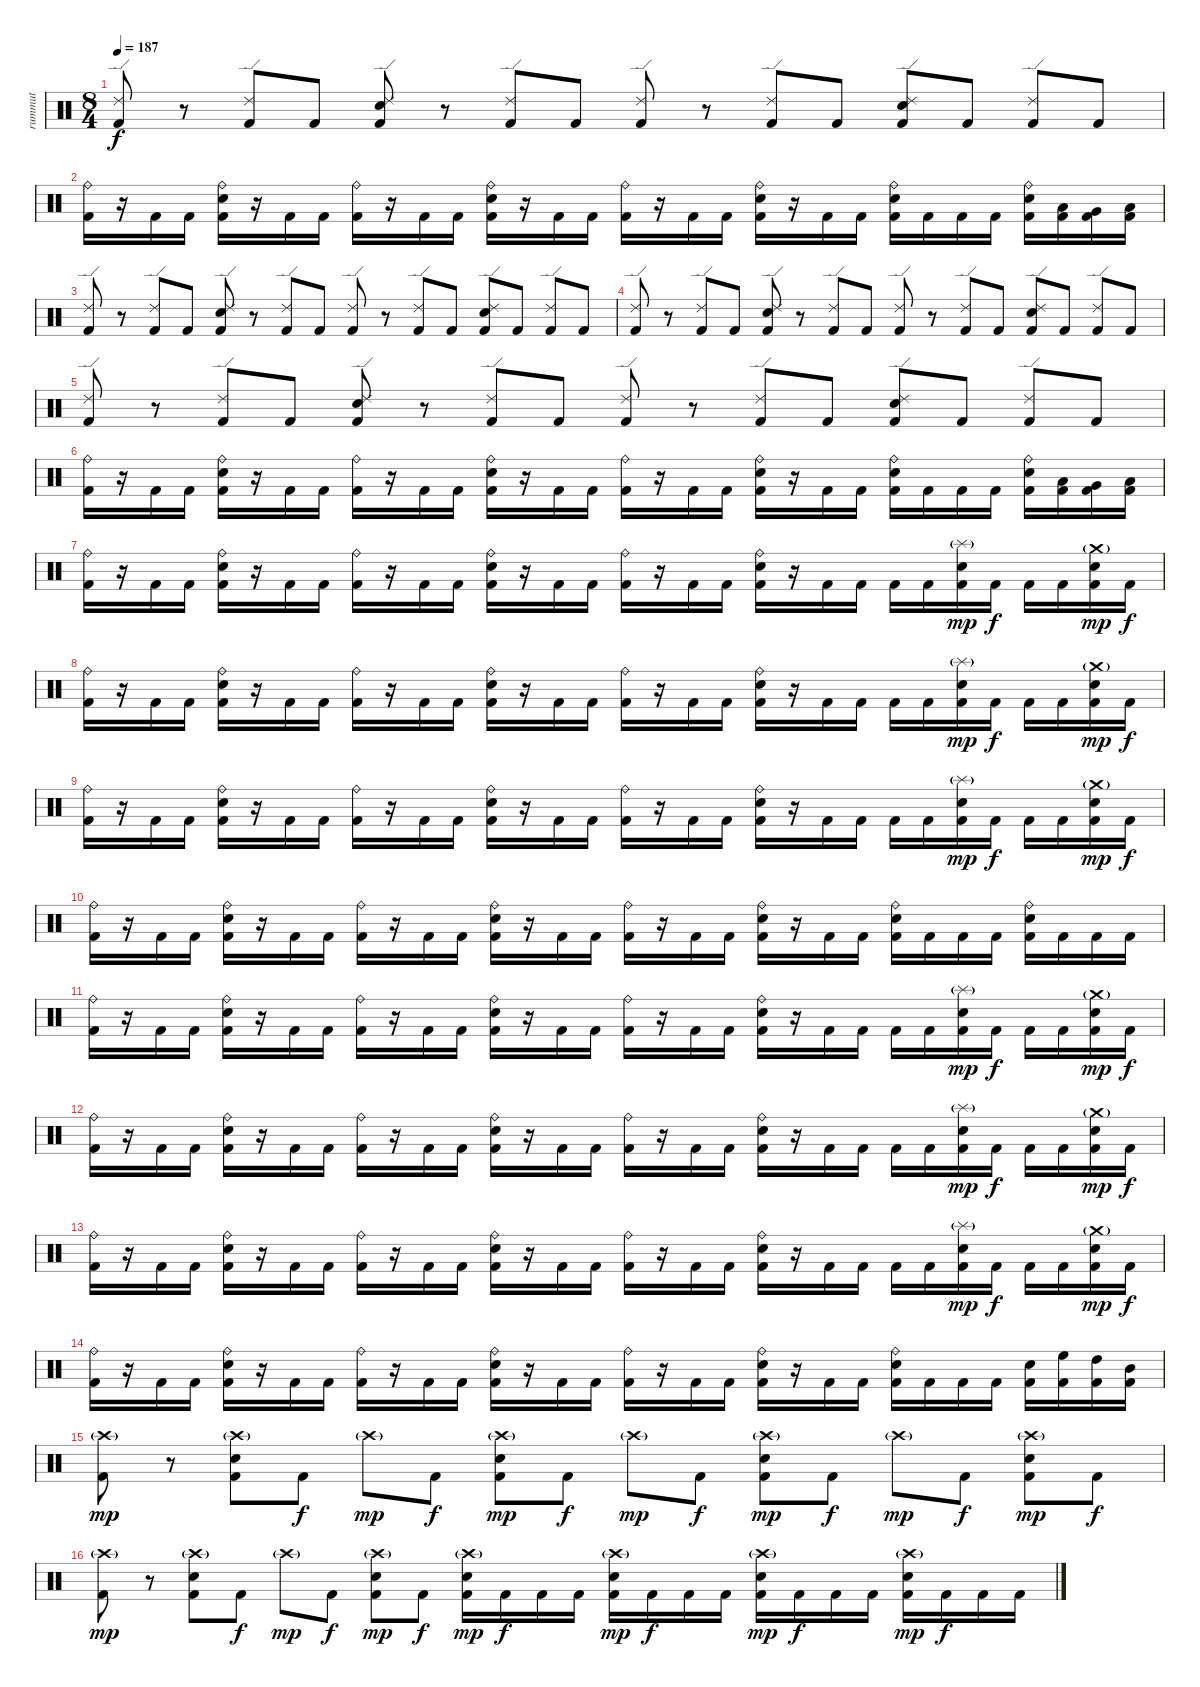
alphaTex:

\track ("rummut" "rummut") {instrument percussion}
\staff {score}
\articulation defaults
\ts (8 4)
\tempo 187
\clef neutral
\ks c
("Kick (hit) 2" "Ride (edge) 2").8{dy f} r.8 ("Kick (hit) 2" "Ride (edge) 2").8 "Kick (hit) 2".8 ("Kick (hit) 2" "Ride (edge) 2" "Snare (hit) 2").8 r.8 ("Kick (hit) 2" "Ride (edge) 2").8 "Kick (hit) 2".8 ("Kick (hit) 2" "Ride (edge) 2").8 r.8 ("Kick (hit) 2" "Ride (edge) 2").8 "Kick (hit) 2".8 ("Kick (hit) 2" "Ride (edge) 2" "Snare (hit) 2").8 "Kick (hit) 2".8 ("Kick (hit) 2" "Ride (edge) 2").8 "Kick (hit) 2".8 |
("Kick (hit) 2" "Ride (bell)").16 r.16 "Kick (hit) 2".16 "Kick (hit) 2".16 ("Kick (hit) 2" "Ride (bell)" "Snare (hit) 2").16 r.16 "Kick (hit) 2".16 "Kick (hit) 2".16 ("Kick (hit) 2" "Ride (bell)").16 r.16 "Kick (hit) 2".16 "Kick (hit) 2".16 ("Kick (hit) 2" "Ride (bell)" "Snare (hit) 2").16 r.16 "Kick (hit) 2".16 "Kick (hit) 2".16 ("Kick (hit) 2" "Ride (bell)").16 r.16 "Kick (hit) 2".16 "Kick (hit) 2".16 ("Kick (hit) 2" "Ride (bell)" "Snare (hit) 2").16 r.16 "Kick (hit) 2".16 "Kick (hit) 2".16 ("Kick (hit) 2" "Ride (bell)" "Snare (hit) 2").16 "Kick (hit) 2".16 "Kick (hit) 2".16 "Kick (hit) 2".16 ("Kick (hit) 2" "Ride (bell)" "Snare (hit) 2").16 ("Kick (hit) 2" "Low Tom (hit)").16 ("Kick (hit) 2" "Very Low Tom (hit)").16 ("Kick (hit) 2" "Low Floor Tom (hit)").16 |
("Kick (hit) 2" "Ride (edge) 2").8 r.8 ("Kick (hit) 2" "Ride (edge) 2").8 "Kick (hit) 2".8 ("Kick (hit) 2" "Ride (edge) 2" "Snare (hit) 2").8 r.8 ("Kick (hit) 2" "Ride (edge) 2").8 "Kick (hit) 2".8 ("Kick (hit) 2" "Ride (edge) 2").8 r.8 ("Kick (hit) 2" "Ride (edge) 2").8 "Kick (hit) 2".8 ("Kick (hit) 2" "Ride (edge) 2" "Snare (hit) 2").8 "Kick (hit) 2".8 ("Kick (hit) 2" "Ride (edge) 2").8 "Kick (hit) 2".8 |
("Kick (hit) 2" "Ride (edge) 2").8 r.8 ("Kick (hit) 2" "Ride (edge) 2").8 "Kick (hit) 2".8 ("Kick (hit) 2" "Ride (edge) 2" "Snare (hit) 2").8 r.8 ("Kick (hit) 2" "Ride (edge) 2").8 "Kick (hit) 2".8 ("Kick (hit) 2" "Ride (edge) 2").8 r.8 ("Kick (hit) 2" "Ride (edge) 2").8 "Kick (hit) 2".8 ("Kick (hit) 2" "Ride (edge) 2" "Snare (hit) 2").8 "Kick (hit) 2".8 ("Kick (hit) 2" "Ride (edge) 2").8 "Kick (hit) 2".8 |
("Kick (hit) 2" "Ride (edge) 2").8 r.8 ("Kick (hit) 2" "Ride (edge) 2").8 "Kick (hit) 2".8 ("Kick (hit) 2" "Ride (edge) 2" "Snare (hit) 2").8 r.8 ("Kick (hit) 2" "Ride (edge) 2").8 "Kick (hit) 2".8 ("Kick (hit) 2" "Ride (edge) 2").8 r.8 ("Kick (hit) 2" "Ride (edge) 2").8 "Kick (hit) 2".8 ("Kick (hit) 2" "Ride (edge) 2" "Snare (hit) 2").8 "Kick (hit) 2".8 ("Kick (hit) 2" "Ride (edge) 2").8 "Kick (hit) 2".8 |
("Kick (hit) 2" "Ride (bell)").16 r.16 "Kick (hit) 2".16 "Kick (hit) 2".16 ("Kick (hit) 2" "Ride (bell)" "Snare (hit) 2").16 r.16 "Kick (hit) 2".16 "Kick (hit) 2".16 ("Kick (hit) 2" "Ride (bell)").16 r.16 "Kick (hit) 2".16 "Kick (hit) 2".16 ("Kick (hit) 2" "Ride (bell)" "Snare (hit) 2").16 r.16 "Kick (hit) 2".16 "Kick (hit) 2".16 ("Kick (hit) 2" "Ride (bell)").16 r.16 "Kick (hit) 2".16 "Kick (hit) 2".16 ("Kick (hit) 2" "Ride (bell)" "Snare (hit) 2").16 r.16 "Kick (hit) 2".16 "Kick (hit) 2".16 ("Kick (hit) 2" "Ride (bell)" "Snare (hit) 2").16 "Kick (hit) 2".16 "Kick (hit) 2".16 "Kick (hit) 2".16 ("Kick (hit) 2" "Ride (bell)" "Snare (hit) 2").16 ("Kick (hit) 2" "Low Tom (hit)").16 ("Kick (hit) 2" "Very Low Tom (hit)").16 ("Kick (hit) 2" "Low Floor Tom (hit)").16 |
("Kick (hit) 2" "Ride (bell)").16 r.16 "Kick (hit) 2".16 "Kick (hit) 2".16 ("Kick (hit) 2" "Ride (bell)" "Snare (hit) 2").16 r.16 "Kick (hit) 2".16 "Kick (hit) 2".16 ("Kick (hit) 2" "Ride (bell)").16 r.16 "Kick (hit) 2".16 "Kick (hit) 2".16 ("Kick (hit) 2" "Ride (bell)" "Snare (hit) 2").16 r.16 "Kick (hit) 2".16 "Kick (hit) 2".16 ("Kick (hit) 2" "Ride (bell)").16 r.16 "Kick (hit) 2".16 "Kick (hit) 2".16 ("Kick (hit) 2" "Ride (bell)" "Snare (hit) 2").16 r.16 "Kick (hit) 2".16 "Kick (hit) 2".16 "Kick (hit) 2".16 "Kick (hit) 2".16 ("Kick (hit) 2" "Snare (hit) 2" "Splash (hit)"{g}).16{dy mp} "Kick (hit) 2".16{dy f} "Kick (hit) 2".16 "Kick (hit) 2".16 ("Kick (hit) 2" "Snare (hit) 2" "Crash medium (hit)"{g}).16{dy mp} "Kick (hit) 2".16{dy f} |
("Kick (hit) 2" "Ride (bell)").16 r.16 "Kick (hit) 2".16 "Kick (hit) 2".16 ("Kick (hit) 2" "Ride (bell)" "Snare (hit) 2").16 r.16 "Kick (hit) 2".16 "Kick (hit) 2".16 ("Kick (hit) 2" "Ride (bell)").16 r.16 "Kick (hit) 2".16 "Kick (hit) 2".16 ("Kick (hit) 2" "Ride (bell)" "Snare (hit) 2").16 r.16 "Kick (hit) 2".16 "Kick (hit) 2".16 ("Kick (hit) 2" "Ride (bell)").16 r.16 "Kick (hit) 2".16 "Kick (hit) 2".16 ("Kick (hit) 2" "Ride (bell)" "Snare (hit) 2").16 r.16 "Kick (hit) 2".16 "Kick (hit) 2".16 "Kick (hit) 2".16 "Kick (hit) 2".16 ("Kick (hit) 2" "Snare (hit) 2" "Splash (hit)"{g}).16{dy mp} "Kick (hit) 2".16{dy f} "Kick (hit) 2".16 "Kick (hit) 2".16 ("Kick (hit) 2" "Snare (hit) 2" "Crash medium (hit)"{g}).16{dy mp} "Kick (hit) 2".16{dy f} |
("Kick (hit) 2" "Ride (bell)").16 r.16 "Kick (hit) 2".16 "Kick (hit) 2".16 ("Kick (hit) 2" "Ride (bell)" "Snare (hit) 2").16 r.16 "Kick (hit) 2".16 "Kick (hit) 2".16 ("Kick (hit) 2" "Ride (bell)").16 r.16 "Kick (hit) 2".16 "Kick (hit) 2".16 ("Kick (hit) 2" "Ride (bell)" "Snare (hit) 2").16 r.16 "Kick (hit) 2".16 "Kick (hit) 2".16 ("Kick (hit) 2" "Ride (bell)").16 r.16 "Kick (hit) 2".16 "Kick (hit) 2".16 ("Kick (hit) 2" "Ride (bell)" "Snare (hit) 2").16 r.16 "Kick (hit) 2".16 "Kick (hit) 2".16 "Kick (hit) 2".16 "Kick (hit) 2".16 ("Kick (hit) 2" "Snare (hit) 2" "Splash (hit)"{g}).16{dy mp} "Kick (hit) 2".16{dy f} "Kick (hit) 2".16 "Kick (hit) 2".16 ("Kick (hit) 2" "Snare (hit) 2" "Crash medium (hit)"{g}).16{dy mp} "Kick (hit) 2".16{dy f} |
("Kick (hit) 2" "Ride (bell)").16 r.16 "Kick (hit) 2".16 "Kick (hit) 2".16 ("Kick (hit) 2" "Ride (bell)" "Snare (hit) 2").16 r.16 "Kick (hit) 2".16 "Kick (hit) 2".16 ("Kick (hit) 2" "Ride (bell)").16 r.16 "Kick (hit) 2".16 "Kick (hit) 2".16 ("Kick (hit) 2" "Ride (bell)" "Snare (hit) 2").16 r.16 "Kick (hit) 2".16 "Kick (hit) 2".16 ("Kick (hit) 2" "Ride (bell)").16 r.16 "Kick (hit) 2".16 "Kick (hit) 2".16 ("Kick (hit) 2" "Ride (bell)" "Snare (hit) 2").16 r.16 "Kick (hit) 2".16 "Kick (hit) 2".16 ("Kick (hit) 2" "Ride (bell)" "Snare (hit) 2").16 "Kick (hit) 2".16 "Kick (hit) 2".16 "Kick (hit) 2".16 ("Kick (hit) 2" "Ride (bell)" "Snare (hit) 2").16 "Kick (hit) 2".16 "Kick (hit) 2".16 "Kick (hit) 2".16 |
("Kick (hit) 2" "Ride (bell)").16 r.16 "Kick (hit) 2".16 "Kick (hit) 2".16 ("Kick (hit) 2" "Ride (bell)" "Snare (hit) 2").16 r.16 "Kick (hit) 2".16 "Kick (hit) 2".16 ("Kick (hit) 2" "Ride (bell)").16 r.16 "Kick (hit) 2".16 "Kick (hit) 2".16 ("Kick (hit) 2" "Ride (bell)" "Snare (hit) 2").16 r.16 "Kick (hit) 2".16 "Kick (hit) 2".16 ("Kick (hit) 2" "Ride (bell)").16 r.16 "Kick (hit) 2".16 "Kick (hit) 2".16 ("Kick (hit) 2" "Ride (bell)" "Snare (hit) 2").16 r.16 "Kick (hit) 2".16 "Kick (hit) 2".16 "Kick (hit) 2".16 "Kick (hit) 2".16 ("Kick (hit) 2" "Snare (hit) 2" "Splash (hit)"{g}).16{dy mp} "Kick (hit) 2".16{dy f} "Kick (hit) 2".16 "Kick (hit) 2".16 ("Kick (hit) 2" "Snare (hit) 2" "Crash medium (hit)"{g}).16{dy mp} "Kick (hit) 2".16{dy f} |
("Kick (hit) 2" "Ride (bell)").16 r.16 "Kick (hit) 2".16 "Kick (hit) 2".16 ("Kick (hit) 2" "Ride (bell)" "Snare (hit) 2").16 r.16 "Kick (hit) 2".16 "Kick (hit) 2".16 ("Kick (hit) 2" "Ride (bell)").16 r.16 "Kick (hit) 2".16 "Kick (hit) 2".16 ("Kick (hit) 2" "Ride (bell)" "Snare (hit) 2").16 r.16 "Kick (hit) 2".16 "Kick (hit) 2".16 ("Kick (hit) 2" "Ride (bell)").16 r.16 "Kick (hit) 2".16 "Kick (hit) 2".16 ("Kick (hit) 2" "Ride (bell)" "Snare (hit) 2").16 r.16 "Kick (hit) 2".16 "Kick (hit) 2".16 "Kick (hit) 2".16 "Kick (hit) 2".16 ("Kick (hit) 2" "Snare (hit) 2" "Splash (hit)"{g}).16{dy mp} "Kick (hit) 2".16{dy f} "Kick (hit) 2".16 "Kick (hit) 2".16 ("Kick (hit) 2" "Snare (hit) 2" "Crash medium (hit)"{g}).16{dy mp} "Kick (hit) 2".16{dy f} |
("Kick (hit) 2" "Ride (bell)").16 r.16 "Kick (hit) 2".16 "Kick (hit) 2".16 ("Kick (hit) 2" "Ride (bell)" "Snare (hit) 2").16 r.16 "Kick (hit) 2".16 "Kick (hit) 2".16 ("Kick (hit) 2" "Ride (bell)").16 r.16 "Kick (hit) 2".16 "Kick (hit) 2".16 ("Kick (hit) 2" "Ride (bell)" "Snare (hit) 2").16 r.16 "Kick (hit) 2".16 "Kick (hit) 2".16 ("Kick (hit) 2" "Ride (bell)").16 r.16 "Kick (hit) 2".16 "Kick (hit) 2".16 ("Kick (hit) 2" "Ride (bell)" "Snare (hit) 2").16 r.16 "Kick (hit) 2".16 "Kick (hit) 2".16 "Kick (hit) 2".16 "Kick (hit) 2".16 ("Kick (hit) 2" "Snare (hit) 2" "Splash (hit)"{g}).16{dy mp} "Kick (hit) 2".16{dy f} "Kick (hit) 2".16 "Kick (hit) 2".16 ("Kick (hit) 2" "Snare (hit) 2" "Crash medium (hit)"{g}).16{dy mp} "Kick (hit) 2".16{dy f} |
("Kick (hit) 2" "Ride (bell)").16 r.16 "Kick (hit) 2".16 "Kick (hit) 2".16 ("Kick (hit) 2" "Ride (bell)" "Snare (hit) 2").16 r.16 "Kick (hit) 2".16 "Kick (hit) 2".16 ("Kick (hit) 2" "Ride (bell)").16 r.16 "Kick (hit) 2".16 "Kick (hit) 2".16 ("Kick (hit) 2" "Ride (bell)" "Snare (hit) 2").16 r.16 "Kick (hit) 2".16 "Kick (hit) 2".16 ("Kick (hit) 2" "Ride (bell)").16 r.16 "Kick (hit) 2".16 "Kick (hit) 2".16 ("Kick (hit) 2" "Ride (bell)" "Snare (hit) 2").16 r.16 "Kick (hit) 2".16 "Kick (hit) 2".16 ("Kick (hit) 2" "Ride (bell)" "Snare (hit) 2").16 "Kick (hit) 2".16 "Kick (hit) 2".16 "Kick (hit) 2".16 ("Kick (hit) 2" "Snare (hit) 2").16 ("Kick (hit) 2" "High Floor Tom (hit)").16 ("Kick (hit) 2" "High Tom (hit)").16 ("Kick (hit) 2" "Mid Tom (hit)").16 |
("Kick (hit) 2" "Crash high (hit)"{g}).8{dy mp} r.8 ("Kick (hit) 2" "Crash high (hit)"{g} "Snare (hit) 2").8 "Kick (hit) 2".8{dy f} "Crash high (hit)"{g}.8{dy mp} "Kick (hit) 2".8{dy f} ("Kick (hit) 2" "Crash high (hit)"{g} "Snare (hit) 2").8{dy mp} "Kick (hit) 2".8{dy f} "Crash high (hit)"{g}.8{dy mp} "Kick (hit) 2".8{dy f} ("Kick (hit) 2" "Crash high (hit)"{g} "Snare (hit) 2").8{dy mp} "Kick (hit) 2".8{dy f} "Crash high (hit)"{g}.8{dy mp} "Kick (hit) 2".8{dy f} ("Kick (hit) 2" "Crash high (hit)"{g} "Snare (hit) 2").8{dy mp} "Kick (hit) 2".8{dy f} |
("Kick (hit) 2" "Crash high (hit)"{g}).8{dy mp} r.8 ("Kick (hit) 2" "Crash high (hit)"{g} "Snare (hit) 2").8 "Kick (hit) 2".8{dy f} "Crash high (hit)"{g}.8{dy mp} "Kick (hit) 2".8{dy f} ("Kick (hit) 2" "Crash high (hit)"{g} "Snare (hit) 2").8{dy mp} "Kick (hit) 2".8{dy f} ("Kick (hit) 2" "Crash high (hit)"{g} "Snare (hit) 2").16{dy mp} "Kick (hit) 2".16{dy f} "Kick (hit) 2".16 "Kick (hit) 2".16 ("Kick (hit) 2" "Crash high (hit)"{g} "Snare (hit) 2").16{dy mp} "Kick (hit) 2".16{dy f} "Kick (hit) 2".16 "Kick (hit) 2".16 ("Kick (hit) 2" "Crash high (hit)"{g} "Snare (hit) 2").16{dy mp} "Kick (hit) 2".16{dy f} "Kick (hit) 2".16 "Kick (hit) 2".16 ("Kick (hit) 2" "Crash high (hit)"{g} "Snare (hit) 2").16{dy mp} "Kick (hit) 2".16{dy f} "Kick (hit) 2".16 "Kick (hit) 2".16
